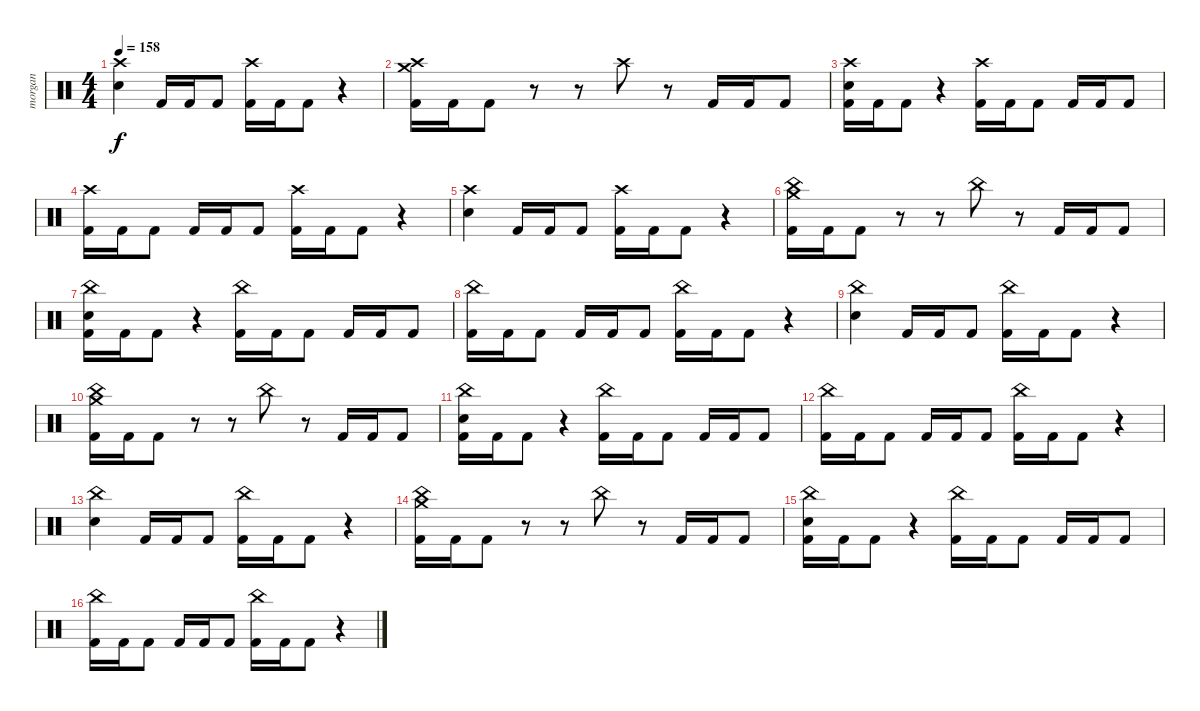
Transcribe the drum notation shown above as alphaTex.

\track ("morgan" "morgan") {instrument percussion}
\staff {score}
\articulation defaults
\ts (4 4)
\tempo 158
\clef neutral
\ks c
("Crash high (hit)" "Electric Snare (hit)").4{dy f} "Kick (hit) 2".16 "Kick (hit) 2".16 "Kick (hit) 2".8 ("Crash high (hit)" "Kick (hit) 2").16 "Kick (hit) 2".16 "Kick (hit) 2".8 r.4 |
("Crash medium (hit)" "Crash high (hit)" "Kick (hit) 2").16 "Kick (hit) 2".16 "Kick (hit) 2".8 r.8 r.8 "Crash high (hit)".8 r.8 "Kick (hit) 2".16 "Kick (hit) 2".16 "Kick (hit) 2".8 |
("Crash high (hit)" "Electric Snare (hit)" "Kick (hit) 2").16 "Kick (hit) 2".16 "Kick (hit) 2".8 r.4 ("Crash high (hit)" "Kick (hit) 2").16 "Kick (hit) 2".16 "Kick (hit) 2".8 "Kick (hit) 2".16 "Kick (hit) 2".16 "Kick (hit) 2".8 |
("Crash high (hit)" "Kick (hit) 2").16 "Kick (hit) 2".16 "Kick (hit) 2".8 "Kick (hit) 2".16 "Kick (hit) 2".16 "Kick (hit) 2".8 ("Crash high (hit)" "Kick (hit) 2").16 "Kick (hit) 2".16 "Kick (hit) 2".8 r.4 |
("Crash high (hit)" "Electric Snare (hit)").4 "Kick (hit) 2".16 "Kick (hit) 2".16 "Kick (hit) 2".8 ("Crash high (hit)" "Kick (hit) 2").16 "Kick (hit) 2".16 "Kick (hit) 2".8 r.4 |
("Crash medium (hit)" "China (hit)" "Kick (hit) 2").16 "Kick (hit) 2".16 "Kick (hit) 2".8 r.8 r.8 "China (hit)".8 r.8 "Kick (hit) 2".16 "Kick (hit) 2".16 "Kick (hit) 2".8 |
("China (hit)" "Electric Snare (hit)" "Kick (hit) 2").16 "Kick (hit) 2".16 "Kick (hit) 2".8 r.4 ("China (hit)" "Kick (hit) 2").16 "Kick (hit) 2".16 "Kick (hit) 2".8 "Kick (hit) 2".16 "Kick (hit) 2".16 "Kick (hit) 2".8 |
("China (hit)" "Kick (hit) 2").16 "Kick (hit) 2".16 "Kick (hit) 2".8 "Kick (hit) 2".16 "Kick (hit) 2".16 "Kick (hit) 2".8 ("China (hit)" "Kick (hit) 2").16 "Kick (hit) 2".16 "Kick (hit) 2".8 r.4 |
("China (hit)" "Electric Snare (hit)").4 "Kick (hit) 2".16 "Kick (hit) 2".16 "Kick (hit) 2".8 ("China (hit)" "Kick (hit) 2").16 "Kick (hit) 2".16 "Kick (hit) 2".8 r.4 |
("Crash medium (hit)" "China (hit)" "Kick (hit) 2").16 "Kick (hit) 2".16 "Kick (hit) 2".8 r.8 r.8 "China (hit)".8 r.8 "Kick (hit) 2".16 "Kick (hit) 2".16 "Kick (hit) 2".8 |
("China (hit)" "Electric Snare (hit)" "Kick (hit) 2").16 "Kick (hit) 2".16 "Kick (hit) 2".8 r.4 ("China (hit)" "Kick (hit) 2").16 "Kick (hit) 2".16 "Kick (hit) 2".8 "Kick (hit) 2".16 "Kick (hit) 2".16 "Kick (hit) 2".8 |
("China (hit)" "Kick (hit) 2").16 "Kick (hit) 2".16 "Kick (hit) 2".8 "Kick (hit) 2".16 "Kick (hit) 2".16 "Kick (hit) 2".8 ("China (hit)" "Kick (hit) 2").16 "Kick (hit) 2".16 "Kick (hit) 2".8 r.4 |
("China (hit)" "Electric Snare (hit)").4 "Kick (hit) 2".16 "Kick (hit) 2".16 "Kick (hit) 2".8 ("China (hit)" "Kick (hit) 2").16 "Kick (hit) 2".16 "Kick (hit) 2".8 r.4 |
("Crash medium (hit)" "China (hit)" "Kick (hit) 2").16{volume 0} "Kick (hit) 2".16 "Kick (hit) 2".8 r.8 r.8 "China (hit)".8 r.8 "Kick (hit) 2".16 "Kick (hit) 2".16 "Kick (hit) 2".8 |
("China (hit)" "Electric Snare (hit)" "Kick (hit) 2").16 "Kick (hit) 2".16 "Kick (hit) 2".8 r.4 ("China (hit)" "Kick (hit) 2").16 "Kick (hit) 2".16 "Kick (hit) 2".8 "Kick (hit) 2".16 "Kick (hit) 2".16 "Kick (hit) 2".8 |
("China (hit)" "Kick (hit) 2").16 "Kick (hit) 2".16 "Kick (hit) 2".8 "Kick (hit) 2".16 "Kick (hit) 2".16 "Kick (hit) 2".8 ("China (hit)" "Kick (hit) 2").16 "Kick (hit) 2".16 "Kick (hit) 2".8 r.4
